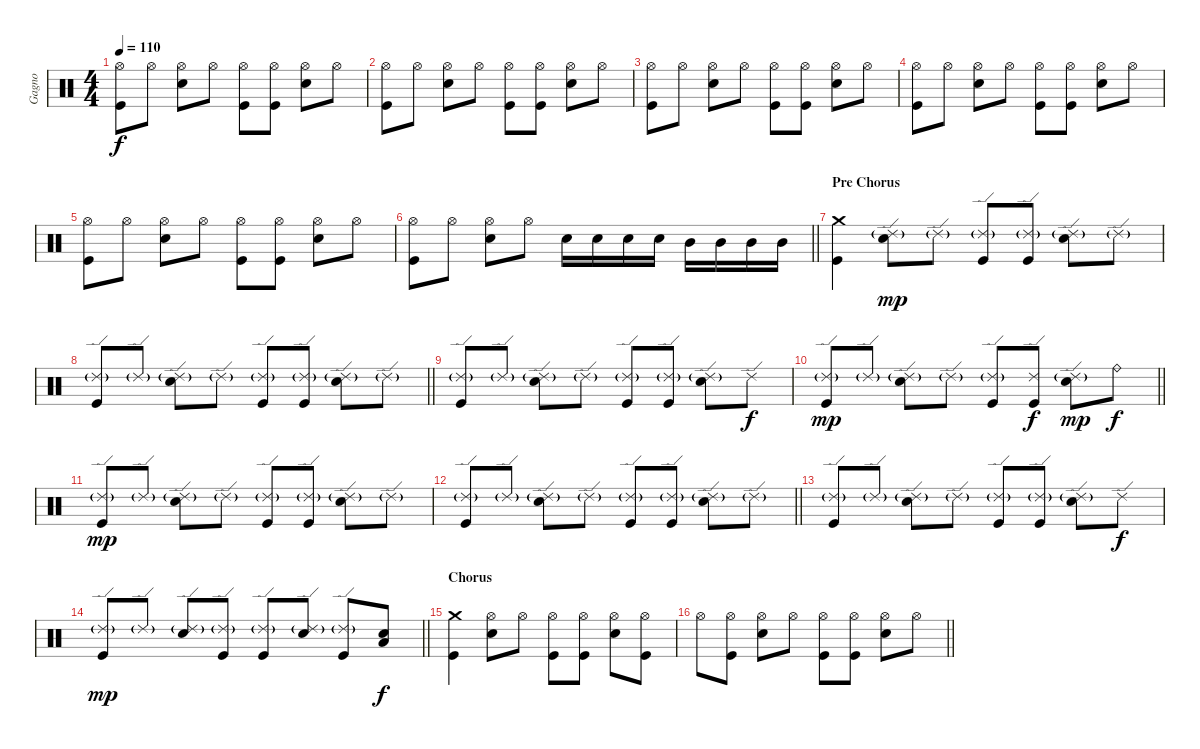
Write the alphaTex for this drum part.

\track ("Gagno" "Gagno") {instrument percussion}
\staff {score}
\articulation defaults
\ts (4 4)
\tempo 110
\clef neutral
\ks c
("Hi-Hat (open)" "Kick (hit)").8{dy f} "Hi-Hat (open)".8 ("Hi-Hat (open)" "Snare (hit) 2").8 "Hi-Hat (open)".8 ("Hi-Hat (open)" "Kick (hit)").8 ("Hi-Hat (open)" "Kick (hit)").8 ("Hi-Hat (open)" "Snare (hit) 2").8 "Hi-Hat (open)".8 |
("Hi-Hat (open)" "Kick (hit)").8 "Hi-Hat (open)".8 ("Hi-Hat (open)" "Snare (hit) 2").8 "Hi-Hat (open)".8 ("Hi-Hat (open)" "Kick (hit)").8 ("Hi-Hat (open)" "Kick (hit)").8 ("Hi-Hat (open)" "Snare (hit) 2").8 "Hi-Hat (open)".8 |
("Hi-Hat (open)" "Kick (hit)").8 "Hi-Hat (open)".8 ("Hi-Hat (open)" "Snare (hit) 2").8 "Hi-Hat (open)".8 ("Hi-Hat (open)" "Kick (hit)").8 ("Hi-Hat (open)" "Kick (hit)").8 ("Hi-Hat (open)" "Snare (hit) 2").8 "Hi-Hat (open)".8 |
("Hi-Hat (open)" "Kick (hit)").8 "Hi-Hat (open)".8 ("Hi-Hat (open)" "Snare (hit) 2").8 "Hi-Hat (open)".8 ("Hi-Hat (open)" "Kick (hit)").8 ("Hi-Hat (open)" "Kick (hit)").8 ("Hi-Hat (open)" "Snare (hit) 2").8 "Hi-Hat (open)".8 |
("Hi-Hat (open)" "Kick (hit)").8 "Hi-Hat (open)".8 ("Hi-Hat (open)" "Snare (hit) 2").8 "Hi-Hat (open)".8 ("Hi-Hat (open)" "Kick (hit)").8 ("Hi-Hat (open)" "Kick (hit)").8 ("Hi-Hat (open)" "Snare (hit) 2").8 "Hi-Hat (open)".8 |
\barLineRight lightlight
("Hi-Hat (open)" "Kick (hit)").8 "Hi-Hat (open)".8 ("Hi-Hat (open)" "Snare (hit) 2").8 "Hi-Hat (open)".8 "Snare (hit) 2".16 "Snare (hit) 2".16 "Snare (hit) 2".16 "Snare (hit) 2".16 "Mid Tom (hit)".16 "Mid Tom (hit)".16 "Mid Tom (hit)".16 "Mid Tom (hit)".16 |
\section ("" "Pre Chorus")
("Crash medium (hit)" "Kick (hit)").4 ("Ride (edge) 2"{g} "Snare (hit) 2").8{dy mp} "Ride (edge) 2"{g}.8 ("Ride (edge) 2"{g} "Kick (hit)").8 ("Ride (edge) 2"{g} "Kick (hit)").8 ("Ride (edge) 2"{g} "Snare (hit) 2").8 "Ride (edge) 2"{g}.8 |
\barLineRight lightlight
("Ride (edge) 2"{g} "Kick (hit)").8 "Ride (edge) 2"{g}.8 ("Ride (edge) 2"{g} "Snare (hit) 2").8 "Ride (edge) 2"{g}.8 ("Ride (edge) 2"{g} "Kick (hit)").8 ("Ride (edge) 2"{g} "Kick (hit)").8 ("Ride (edge) 2"{g} "Snare (hit) 2").8 "Ride (edge) 2"{g}.8 |
("Ride (edge) 2"{g} "Kick (hit)").8 "Ride (edge) 2"{g}.8 ("Ride (edge) 2"{g} "Snare (hit) 2").8 "Ride (edge) 2"{g}.8 ("Ride (edge) 2"{g} "Kick (hit)").8 ("Ride (edge) 2"{g} "Kick (hit)").8 ("Ride (edge) 2"{g} "Snare (hit) 2").8 "Ride (edge) 2".8{dy f} |
\barLineRight lightlight
("Ride (edge) 2"{g} "Kick (hit)").8{dy mp} "Ride (edge) 2"{g}.8 ("Ride (edge) 2"{g} "Snare (hit) 2").8 "Ride (edge) 2"{g}.8 ("Ride (edge) 2"{g} "Kick (hit)").8 ("Ride (edge) 2" "Kick (hit)").8{dy f} ("Ride (edge) 2"{g} "Snare (hit) 2").8{dy mp} "Ride (bell)".8{dy f} |
("Ride (edge) 2"{g} "Kick (hit)").8{dy mp} "Ride (edge) 2"{g}.8 ("Ride (edge) 2"{g} "Snare (hit) 2").8 "Ride (edge) 2"{g}.8 ("Ride (edge) 2"{g} "Kick (hit)").8 ("Ride (edge) 2"{g} "Kick (hit)").8 ("Ride (edge) 2"{g} "Snare (hit) 2").8 "Ride (edge) 2"{g}.8 |
\barLineRight lightlight
("Ride (edge) 2"{g} "Kick (hit)").8 "Ride (edge) 2"{g}.8 ("Ride (edge) 2"{g} "Snare (hit) 2").8 "Ride (edge) 2"{g}.8 ("Ride (edge) 2"{g} "Kick (hit)").8 ("Ride (edge) 2"{g} "Kick (hit)").8 ("Ride (edge) 2"{g} "Snare (hit) 2").8 "Ride (edge) 2"{g}.8 |
("Ride (edge) 2"{g} "Kick (hit)").8 "Ride (edge) 2"{g}.8 ("Ride (edge) 2"{g} "Snare (hit) 2").8 "Ride (edge) 2"{g}.8 ("Ride (edge) 2"{g} "Kick (hit)").8 ("Ride (edge) 2"{g} "Kick (hit)").8 ("Ride (edge) 2"{g} "Snare (hit) 2").8 "Ride (edge) 2".8{dy f} |
\barLineRight lightlight
("Ride (edge) 2"{g} "Kick (hit)").8{dy mp} "Ride (edge) 2"{g}.8 ("Ride (edge) 2"{g} "Snare (hit) 2").8 ("Ride (edge) 2"{g} "Kick (hit)").8 ("Ride (edge) 2"{g} "Kick (hit)").8 ("Ride (edge) 2"{g} "Snare (hit) 2").8 ("Ride (edge) 2"{g} "Kick (hit)").8 ("Low Floor Tom (hit)" "Snare (hit) 2").8{dy f} |
\section ("" "Chorus")
("Crash medium (hit)" "Kick (hit)").4 ("Hi-Hat (open)" "Snare (hit) 2").8 "Hi-Hat (open)".8 ("Hi-Hat (open)" "Kick (hit)").8 ("Hi-Hat (open)" "Kick (hit)").8 ("Hi-Hat (open)" "Snare (hit) 2").8 ("Hi-Hat (open)" "Kick (hit)").8 |
\barLineRight lightlight "Hi-Hat (open)".8
("Hi-Hat (open)" "Kick (hit)").8 ("Hi-Hat (open)" "Snare (hit) 2").8 "Hi-Hat (open)".8 ("Hi-Hat (open)" "Kick (hit)").8 ("Hi-Hat (open)" "Kick (hit)").8 ("Hi-Hat (open)" "Snare (hit) 2").8 "Hi-Hat (open)".8
